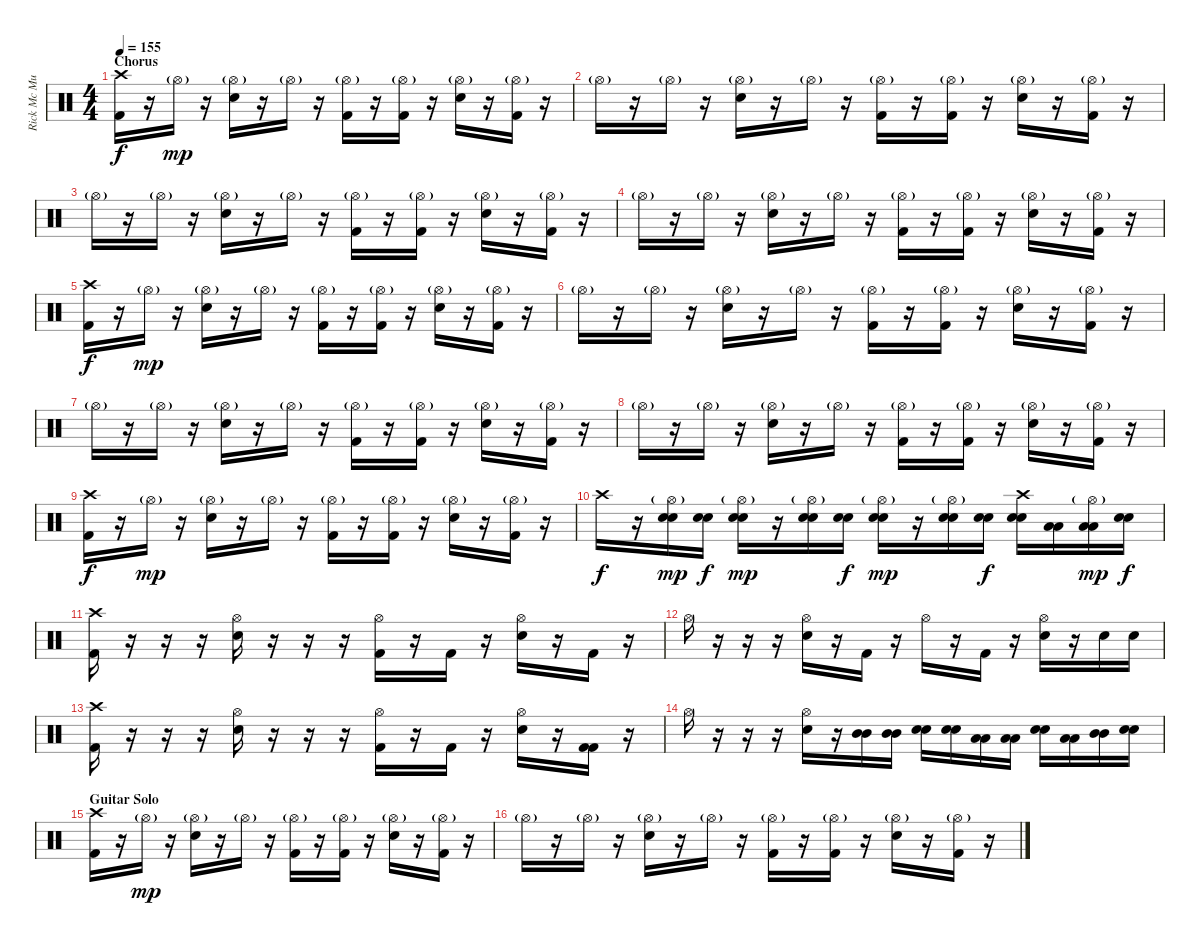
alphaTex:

\track ("Rick Mc Murray" "Rick Mc Mu") {instrument percussion}
\staff {score}
\articulation defaults
\ts (4 4)
\section ("" "Chorus")
\tempo 155
\clef neutral
\ks c
("Crash high (hit)" "Kick (hit) 2").16{dy f} r.16 "Hi-Hat (open)"{g}.16{dy mp} r.16 ("Hi-Hat (open)"{g} "Electric Snare (hit)").16 r.16 "Hi-Hat (open)"{g}.16 r.16 ("Hi-Hat (open)"{g} "Kick (hit) 2").16 r.16 ("Hi-Hat (open)"{g} "Kick (hit) 2").16 r.16 ("Hi-Hat (open)"{g} "Electric Snare (hit)").16 r.16 ("Hi-Hat (open)"{g} "Kick (hit) 2").16 r.16 |
"Hi-Hat (open)"{g}.16 r.16 "Hi-Hat (open)"{g}.16 r.16 ("Hi-Hat (open)"{g} "Electric Snare (hit)").16 r.16 "Hi-Hat (open)"{g}.16 r.16 ("Hi-Hat (open)"{g} "Kick (hit) 2").16 r.16 ("Hi-Hat (open)"{g} "Kick (hit) 2").16 r.16 ("Hi-Hat (open)"{g} "Electric Snare (hit)").16 r.16 ("Hi-Hat (open)"{g} "Kick (hit) 2").16 r.16 |
"Hi-Hat (open)"{g}.16 r.16 "Hi-Hat (open)"{g}.16 r.16 ("Hi-Hat (open)"{g} "Electric Snare (hit)").16 r.16 "Hi-Hat (open)"{g}.16 r.16 ("Hi-Hat (open)"{g} "Kick (hit) 2").16 r.16 ("Hi-Hat (open)"{g} "Kick (hit) 2").16 r.16 ("Hi-Hat (open)"{g} "Electric Snare (hit)").16 r.16 ("Hi-Hat (open)"{g} "Kick (hit) 2").16 r.16 |
"Hi-Hat (open)"{g}.16 r.16 "Hi-Hat (open)"{g}.16 r.16 ("Hi-Hat (open)"{g} "Electric Snare (hit)").16 r.16 "Hi-Hat (open)"{g}.16 r.16 ("Hi-Hat (open)"{g} "Kick (hit) 2").16 r.16 ("Hi-Hat (open)"{g} "Kick (hit) 2").16 r.16 ("Hi-Hat (open)"{g} "Electric Snare (hit)").16 r.16 ("Hi-Hat (open)"{g} "Kick (hit) 2").16 r.16 |
("Crash high (hit)" "Kick (hit) 2").16{dy f} r.16 "Hi-Hat (open)"{g}.16{dy mp} r.16 ("Hi-Hat (open)"{g} "Electric Snare (hit)").16 r.16 "Hi-Hat (open)"{g}.16 r.16 ("Hi-Hat (open)"{g} "Kick (hit) 2").16 r.16 ("Hi-Hat (open)"{g} "Kick (hit) 2").16 r.16 ("Hi-Hat (open)"{g} "Electric Snare (hit)").16 r.16 ("Hi-Hat (open)"{g} "Kick (hit) 2").16 r.16 |
"Hi-Hat (open)"{g}.16 r.16 "Hi-Hat (open)"{g}.16 r.16 ("Hi-Hat (open)"{g} "Electric Snare (hit)").16 r.16 "Hi-Hat (open)"{g}.16 r.16 ("Hi-Hat (open)"{g} "Kick (hit) 2").16 r.16 ("Hi-Hat (open)"{g} "Kick (hit) 2").16 r.16 ("Hi-Hat (open)"{g} "Electric Snare (hit)").16 r.16 ("Hi-Hat (open)"{g} "Kick (hit) 2").16 r.16 |
"Hi-Hat (open)"{g}.16 r.16 "Hi-Hat (open)"{g}.16 r.16 ("Hi-Hat (open)"{g} "Electric Snare (hit)").16 r.16 "Hi-Hat (open)"{g}.16 r.16 ("Hi-Hat (open)"{g} "Kick (hit) 2").16 r.16 ("Hi-Hat (open)"{g} "Kick (hit) 2").16 r.16 ("Hi-Hat (open)"{g} "Electric Snare (hit)").16 r.16 ("Hi-Hat (open)"{g} "Kick (hit) 2").16 r.16 |
"Hi-Hat (open)"{g}.16 r.16 "Hi-Hat (open)"{g}.16 r.16 ("Hi-Hat (open)"{g} "Electric Snare (hit)").16 r.16 "Hi-Hat (open)"{g}.16 r.16 ("Hi-Hat (open)"{g} "Kick (hit) 2").16 r.16 ("Hi-Hat (open)"{g} "Kick (hit) 2").16 r.16 ("Hi-Hat (open)"{g} "Electric Snare (hit)").16 r.16 ("Hi-Hat (open)"{g} "Kick (hit) 2").16 r.16 |
("Crash high (hit)" "Kick (hit) 2").16{dy f} r.16 "Hi-Hat (open)"{g}.16{dy mp} r.16 ("Hi-Hat (open)"{g} "Electric Snare (hit)").16 r.16 "Hi-Hat (open)"{g}.16 r.16 ("Hi-Hat (open)"{g} "Kick (hit) 2").16 r.16 ("Hi-Hat (open)"{g} "Kick (hit) 2").16 r.16 ("Hi-Hat (open)"{g} "Electric Snare (hit)").16 r.16 ("Hi-Hat (open)"{g} "Kick (hit) 2").16 r.16 |
"Crash high (hit)".16{dy f} r.16 ("Hi-Hat (open)"{g} "Electric Snare (hit)" "Snare (hit) 2").16{dy mp} ("Electric Snare (hit)" "Snare (hit) 2").16{dy f} ("Hi-Hat (open)"{g} "Electric Snare (hit)" "Snare (hit) 2").16{dy mp} r.16 ("Hi-Hat (open)"{g} "Electric Snare (hit)" "Snare (hit) 2").16 ("Electric Snare (hit)" "Snare (hit) 2").16{dy f} ("Hi-Hat (open)"{g} "Electric Snare (hit)" "Snare (hit) 2").16{dy mp} r.16 ("Hi-Hat (open)"{g} "Electric Snare (hit)" "Snare (hit) 2").16 ("Electric Snare (hit)" "Snare (hit) 2").16{dy f} ("Crash high (hit)" "Electric Snare (hit)" "Snare (hit) 2").16 ("Low Tom (hit)" "Low Tom (hit)").16 ("Hi-Hat (open)"{g} "Low Tom (hit)" "Low Tom (hit)").16{dy mp} ("Electric Snare (hit)" "Snare (hit) 2").16{dy f} |
("Crash high (hit)" "Kick (hit) 2").16 r.16 r.16 r.16 ("Hi-Hat (open)" "Electric Snare (hit)").16 r.16 r.16 r.16 ("Hi-Hat (open)" "Kick (hit) 2").16 r.16 "Kick (hit) 2".16 r.16 ("Hi-Hat (open)" "Electric Snare (hit)").16 r.16 "Kick (hit) 2".16 r.16 |
"Hi-Hat (open)".16 r.16 r.16 r.16 ("Hi-Hat (open)" "Electric Snare (hit)").16 r.16 "Kick (hit) 2".16 r.16 "Hi-Hat (open)".16 r.16 "Kick (hit) 2".16 r.16 ("Hi-Hat (open)" "Electric Snare (hit)").16 r.16 "Electric Snare (hit)".16 "Electric Snare (hit)".16 |
("Crash high (hit)" "Kick (hit) 2").16 r.16 r.16 r.16 ("Hi-Hat (open)" "Electric Snare (hit)").16 r.16 r.16 r.16 ("Hi-Hat (open)" "Kick (hit) 2").16 r.16 "Kick (hit) 2".16 r.16 ("Hi-Hat (open)" "Electric Snare (hit)").16 r.16 ("Kick (hit) 2" "Kick (hit) 2").16 r.16 |
"Hi-Hat (open)".16 r.16 r.16 r.16 ("Hi-Hat (open)" "Electric Snare (hit)").16 r.16 ("Mid Tom (hit)" "Mid Tom (hit)").16 ("Mid Tom (hit)" "Mid Tom (hit)").16 ("Snare (hit) 2" "Electric Snare (hit)").16 ("Snare (hit) 2" "Electric Snare (hit)").16 ("Low Tom (hit)" "Low Tom (hit)").16 ("Low Tom (hit)" "Low Tom (hit)").16 ("Snare (hit) 2" "Electric Snare (hit)").16 ("Low Tom (hit)" "Low Tom (hit)").16 ("Mid Tom (hit)" "Mid Tom (hit)").16 ("Snare (hit) 2" "Electric Snare (hit)").16 |
\section ("" "Guitar Solo")
("Crash high (hit)" "Kick (hit) 2").16 r.16 "Hi-Hat (open)"{g}.16{dy mp} r.16 ("Hi-Hat (open)"{g} "Electric Snare (hit)").16 r.16 "Hi-Hat (open)"{g}.16 r.16 ("Hi-Hat (open)"{g} "Kick (hit) 2").16 r.16 ("Hi-Hat (open)"{g} "Kick (hit) 2").16 r.16 ("Hi-Hat (open)"{g} "Electric Snare (hit)").16 r.16 ("Hi-Hat (open)"{g} "Kick (hit) 2").16 r.16 |
"Hi-Hat (open)"{g}.16 r.16 "Hi-Hat (open)"{g}.16 r.16 ("Hi-Hat (open)"{g} "Electric Snare (hit)").16 r.16 "Hi-Hat (open)"{g}.16 r.16 ("Hi-Hat (open)"{g} "Kick (hit) 2").16 r.16 ("Hi-Hat (open)"{g} "Kick (hit) 2").16 r.16 ("Hi-Hat (open)"{g} "Electric Snare (hit)").16 r.16 ("Hi-Hat (open)"{g} "Kick (hit) 2").16 r.16
